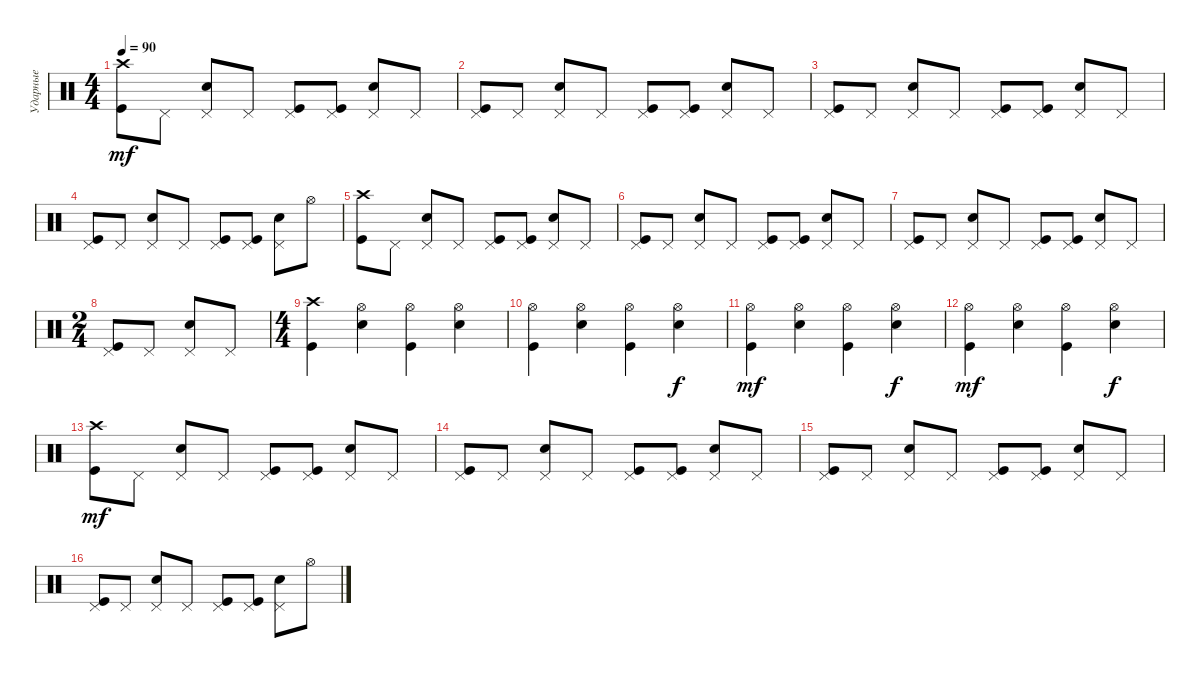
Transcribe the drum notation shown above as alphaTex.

\track ("Ударные" "Ударные") {instrument percussion}
\staff {score}
\articulation defaults
\ts (4 4)
\tempo 90
\clef neutral
\ks c
("Crash high (hit)" "Kick (hit)").8{dy mf} "Pedal Hi-Hat (hit)".8 ("Pedal Hi-Hat (hit)" "Electric Snare (hit)").8 "Pedal Hi-Hat (hit)".8 ("Pedal Hi-Hat (hit)" "Kick (hit)").8 ("Pedal Hi-Hat (hit)" "Kick (hit)").8 ("Pedal Hi-Hat (hit)" "Electric Snare (hit)").8 "Pedal Hi-Hat (hit)".8 |
("Pedal Hi-Hat (hit)" "Kick (hit)").8 "Pedal Hi-Hat (hit)".8 ("Pedal Hi-Hat (hit)" "Electric Snare (hit)").8 "Pedal Hi-Hat (hit)".8 ("Pedal Hi-Hat (hit)" "Kick (hit)").8 ("Pedal Hi-Hat (hit)" "Kick (hit)").8 ("Pedal Hi-Hat (hit)" "Electric Snare (hit)").8 "Pedal Hi-Hat (hit)".8 |
("Pedal Hi-Hat (hit)" "Kick (hit)").8 "Pedal Hi-Hat (hit)".8 ("Pedal Hi-Hat (hit)" "Electric Snare (hit)").8 "Pedal Hi-Hat (hit)".8 ("Pedal Hi-Hat (hit)" "Kick (hit)").8 ("Pedal Hi-Hat (hit)" "Kick (hit)").8 ("Pedal Hi-Hat (hit)" "Electric Snare (hit)").8 "Pedal Hi-Hat (hit)".8 |
("Pedal Hi-Hat (hit)" "Kick (hit)").8 "Pedal Hi-Hat (hit)".8 ("Pedal Hi-Hat (hit)" "Electric Snare (hit)").8 "Pedal Hi-Hat (hit)".8 ("Pedal Hi-Hat (hit)" "Kick (hit)").8 ("Pedal Hi-Hat (hit)" "Kick (hit)").8 ("Pedal Hi-Hat (hit)" "Electric Snare (hit)").8 "Hi-Hat (open)".8 |
("Crash high (hit)" "Kick (hit)").8 "Pedal Hi-Hat (hit)".8 ("Pedal Hi-Hat (hit)" "Electric Snare (hit)").8 "Pedal Hi-Hat (hit)".8 ("Pedal Hi-Hat (hit)" "Kick (hit)").8 ("Pedal Hi-Hat (hit)" "Kick (hit)").8 ("Pedal Hi-Hat (hit)" "Electric Snare (hit)").8 "Pedal Hi-Hat (hit)".8 |
("Pedal Hi-Hat (hit)" "Kick (hit)").8 "Pedal Hi-Hat (hit)".8 ("Pedal Hi-Hat (hit)" "Electric Snare (hit)").8 "Pedal Hi-Hat (hit)".8 ("Pedal Hi-Hat (hit)" "Kick (hit)").8 ("Pedal Hi-Hat (hit)" "Kick (hit)").8 ("Pedal Hi-Hat (hit)" "Electric Snare (hit)").8 "Pedal Hi-Hat (hit)".8 |
("Pedal Hi-Hat (hit)" "Kick (hit)").8 "Pedal Hi-Hat (hit)".8 ("Pedal Hi-Hat (hit)" "Electric Snare (hit)").8 "Pedal Hi-Hat (hit)".8 ("Pedal Hi-Hat (hit)" "Kick (hit)").8 ("Pedal Hi-Hat (hit)" "Kick (hit)").8 ("Pedal Hi-Hat (hit)" "Electric Snare (hit)").8 "Pedal Hi-Hat (hit)".8 |
\ts (2 4)
("Pedal Hi-Hat (hit)" "Kick (hit)").8 "Pedal Hi-Hat (hit)".8 ("Pedal Hi-Hat (hit)" "Electric Snare (hit)").8 "Pedal Hi-Hat (hit)".8 |
\ts (4 4)
("Crash high (hit)" "Kick (hit)").4 ("Hi-Hat (open)" "Electric Snare (hit)").4 ("Hi-Hat (open)" "Kick (hit)").4 ("Hi-Hat (open)" "Electric Snare (hit)").4 |
("Hi-Hat (open)" "Kick (hit)").4 ("Hi-Hat (open)" "Electric Snare (hit)").4 ("Hi-Hat (open)" "Kick (hit)").4 ("Hi-Hat (open)" "Electric Snare (hit)").4{dy f} |
("Hi-Hat (open)" "Kick (hit)").4{dy mf} ("Hi-Hat (open)" "Electric Snare (hit)").4 ("Hi-Hat (open)" "Kick (hit)").4 ("Hi-Hat (open)" "Electric Snare (hit)").4{dy f} |
("Hi-Hat (open)" "Kick (hit)").4{dy mf} ("Hi-Hat (open)" "Electric Snare (hit)").4 ("Hi-Hat (open)" "Kick (hit)").4 ("Hi-Hat (open)" "Electric Snare (hit)").4{dy f} |
("Crash high (hit)" "Kick (hit)").8{dy mf} "Pedal Hi-Hat (hit)".8 ("Pedal Hi-Hat (hit)" "Electric Snare (hit)").8 "Pedal Hi-Hat (hit)".8 ("Pedal Hi-Hat (hit)" "Kick (hit)").8 ("Pedal Hi-Hat (hit)" "Kick (hit)").8 ("Pedal Hi-Hat (hit)" "Electric Snare (hit)").8 "Pedal Hi-Hat (hit)".8 |
("Pedal Hi-Hat (hit)" "Kick (hit)").8 "Pedal Hi-Hat (hit)".8 ("Pedal Hi-Hat (hit)" "Electric Snare (hit)").8 "Pedal Hi-Hat (hit)".8 ("Pedal Hi-Hat (hit)" "Kick (hit)").8 ("Pedal Hi-Hat (hit)" "Kick (hit)").8 ("Pedal Hi-Hat (hit)" "Electric Snare (hit)").8 "Pedal Hi-Hat (hit)".8 |
("Pedal Hi-Hat (hit)" "Kick (hit)").8 "Pedal Hi-Hat (hit)".8 ("Pedal Hi-Hat (hit)" "Electric Snare (hit)").8 "Pedal Hi-Hat (hit)".8 ("Pedal Hi-Hat (hit)" "Kick (hit)").8 ("Pedal Hi-Hat (hit)" "Kick (hit)").8 ("Pedal Hi-Hat (hit)" "Electric Snare (hit)").8 "Pedal Hi-Hat (hit)".8 |
("Pedal Hi-Hat (hit)" "Kick (hit)").8 "Pedal Hi-Hat (hit)".8 ("Pedal Hi-Hat (hit)" "Electric Snare (hit)").8 "Pedal Hi-Hat (hit)".8 ("Pedal Hi-Hat (hit)" "Kick (hit)").8 ("Pedal Hi-Hat (hit)" "Kick (hit)").8 ("Pedal Hi-Hat (hit)" "Electric Snare (hit)").8 "Hi-Hat (open)".8
